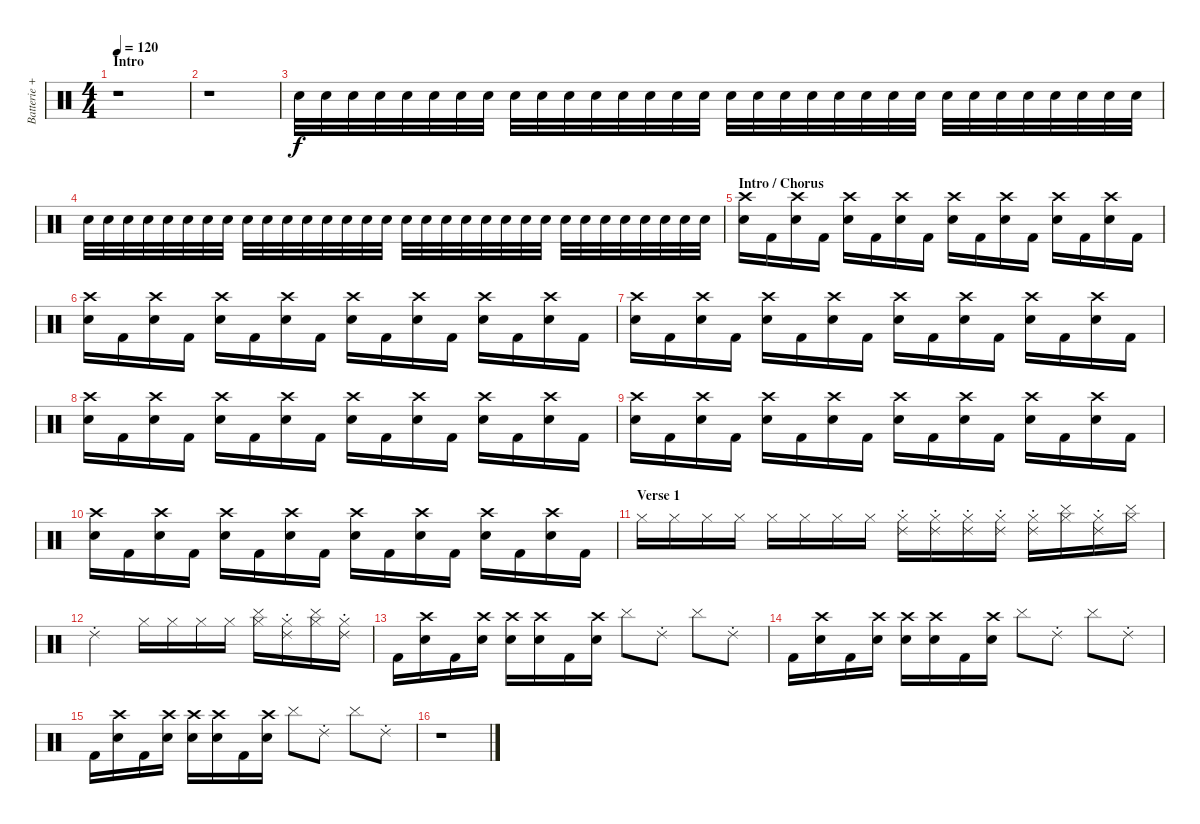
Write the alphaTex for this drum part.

\track ("Batterie + Platines" "Batterie +") {instrument percussion}
\staff {score}
\articulation defaults
\ts (4 4)
\section ("" "Intro")
\tempo 120
\clef neutral
\ks c
r.1{dy f} |
r.1 |
"Snare (hit) 2".32 "Snare (hit) 2".32 "Snare (hit) 2".32 "Snare (hit) 2".32 "Snare (hit) 2".32 "Snare (hit) 2".32 "Snare (hit) 2".32 "Snare (hit) 2".32 "Snare (hit) 2".32 "Snare (hit) 2".32 "Snare (hit) 2".32 "Snare (hit) 2".32 "Snare (hit) 2".32 "Snare (hit) 2".32 "Snare (hit) 2".32 "Snare (hit) 2".32 "Snare (hit) 2".32 "Snare (hit) 2".32 "Snare (hit) 2".32 "Snare (hit) 2".32 "Snare (hit) 2".32 "Snare (hit) 2".32 "Snare (hit) 2".32 "Snare (hit) 2".32 "Snare (hit) 2".32 "Snare (hit) 2".32 "Snare (hit) 2".32 "Snare (hit) 2".32 "Snare (hit) 2".32 "Snare (hit) 2".32 "Snare (hit) 2".32 "Snare (hit) 2".32 |
"Snare (hit) 2".32 "Snare (hit) 2".32 "Snare (hit) 2".32 "Snare (hit) 2".32 "Snare (hit) 2".32 "Snare (hit) 2".32 "Snare (hit) 2".32 "Snare (hit) 2".32 "Snare (hit) 2".32 "Snare (hit) 2".32 "Snare (hit) 2".32 "Snare (hit) 2".32 "Snare (hit) 2".32 "Snare (hit) 2".32 "Snare (hit) 2".32 "Snare (hit) 2".32 "Snare (hit) 2".32 "Snare (hit) 2".32 "Snare (hit) 2".32 "Snare (hit) 2".32 "Snare (hit) 2".32 "Snare (hit) 2".32 "Snare (hit) 2".32 "Snare (hit) 2".32 "Snare (hit) 2".32 "Snare (hit) 2".32 "Snare (hit) 2".32 "Snare (hit) 2".32 "Snare (hit) 2".32 "Snare (hit) 2".32 "Snare (hit) 2".32 "Snare (hit) 2".32 |
\section ("" "Intro / Chorus")
("Crash high (hit)" "Snare (hit) 2").16 "Kick (hit) 2".16 ("Crash high (hit)" "Snare (hit) 2").16 "Kick (hit) 2".16 ("Crash high (hit)" "Snare (hit) 2").16 "Kick (hit) 2".16 ("Crash high (hit)" "Snare (hit) 2").16 "Kick (hit) 2".16 ("Crash high (hit)" "Snare (hit) 2").16 "Kick (hit) 2".16 ("Crash high (hit)" "Snare (hit) 2").16 "Kick (hit) 2".16 ("Crash high (hit)" "Snare (hit) 2").16 "Kick (hit) 2".16 ("Crash high (hit)" "Snare (hit) 2").16 "Kick (hit) 2".16 |
("Crash high (hit)" "Snare (hit) 2").16 "Kick (hit) 2".16 ("Crash high (hit)" "Snare (hit) 2").16 "Kick (hit) 2".16 ("Crash high (hit)" "Snare (hit) 2").16 "Kick (hit) 2".16 ("Crash high (hit)" "Snare (hit) 2").16 "Kick (hit) 2".16 ("Crash high (hit)" "Snare (hit) 2").16 "Kick (hit) 2".16 ("Crash high (hit)" "Snare (hit) 2").16 "Kick (hit) 2".16 ("Crash high (hit)" "Snare (hit) 2").16 "Kick (hit) 2".16 ("Crash high (hit)" "Snare (hit) 2").16 "Kick (hit) 2".16 |
("Crash high (hit)" "Snare (hit) 2").16 "Kick (hit) 2".16 ("Crash high (hit)" "Snare (hit) 2").16 "Kick (hit) 2".16 ("Crash high (hit)" "Snare (hit) 2").16 "Kick (hit) 2".16 ("Crash high (hit)" "Snare (hit) 2").16 "Kick (hit) 2".16 ("Crash high (hit)" "Snare (hit) 2").16 "Kick (hit) 2".16 ("Crash high (hit)" "Snare (hit) 2").16 "Kick (hit) 2".16 ("Crash high (hit)" "Snare (hit) 2").16 "Kick (hit) 2".16 ("Crash high (hit)" "Snare (hit) 2").16 "Kick (hit) 2".16 |
("Crash high (hit)" "Snare (hit) 2").16 "Kick (hit) 2".16 ("Crash high (hit)" "Snare (hit) 2").16 "Kick (hit) 2".16 ("Crash high (hit)" "Snare (hit) 2").16 "Kick (hit) 2".16 ("Crash high (hit)" "Snare (hit) 2").16 "Kick (hit) 2".16 ("Crash high (hit)" "Snare (hit) 2").16 "Kick (hit) 2".16 ("Crash high (hit)" "Snare (hit) 2").16 "Kick (hit) 2".16 ("Crash high (hit)" "Snare (hit) 2").16 "Kick (hit) 2".16 ("Crash high (hit)" "Snare (hit) 2").16 "Kick (hit) 2".16 |
("Crash high (hit)" "Snare (hit) 2").16 "Kick (hit) 2".16 ("Crash high (hit)" "Snare (hit) 2").16 "Kick (hit) 2".16 ("Crash high (hit)" "Snare (hit) 2").16 "Kick (hit) 2".16 ("Crash high (hit)" "Snare (hit) 2").16 "Kick (hit) 2".16 ("Crash high (hit)" "Snare (hit) 2").16 "Kick (hit) 2".16 ("Crash high (hit)" "Snare (hit) 2").16 "Kick (hit) 2".16 ("Crash high (hit)" "Snare (hit) 2").16 "Kick (hit) 2".16 ("Crash high (hit)" "Snare (hit) 2").16 "Kick (hit) 2".16 |
("Crash high (hit)" "Snare (hit) 2").16 "Kick (hit) 2".16 ("Crash high (hit)" "Snare (hit) 2").16 "Kick (hit) 2".16 ("Crash high (hit)" "Snare (hit) 2").16 "Kick (hit) 2".16 ("Crash high (hit)" "Snare (hit) 2").16 "Kick (hit) 2".16 ("Crash high (hit)" "Snare (hit) 2").16 "Kick (hit) 2".16 ("Crash high (hit)" "Snare (hit) 2").16 "Kick (hit) 2".16 ("Crash high (hit)" "Snare (hit) 2").16 "Kick (hit) 2".16 ("Crash high (hit)" "Snare (hit) 2").16 "Kick (hit) 2".16 |
\section ("" "Verse 1")
"Hi-Hat (closed)".16 "Hi-Hat (closed)".16 "Hi-Hat (closed)".16 "Hi-Hat (closed)".16 "Hi-Hat (closed)".16 "Hi-Hat (closed)".16 "Hi-Hat (closed)".16 "Hi-Hat (closed)".16 ("Ride (choke) 2" "Hi-Hat (closed)").16 ("Ride (choke) 2" "Hi-Hat (closed)").16 ("Ride (choke) 2" "Hi-Hat (closed)").16 ("Ride (choke) 2" "Hi-Hat (closed)").16 ("Ride (choke) 2" "Hi-Hat (closed)").16 ("Cymbal (hit)" "Hi-Hat (closed)").16 ("Ride (choke) 2" "Hi-Hat (closed)").16 ("Cymbal (hit)" "Hi-Hat (closed)").16 |
"Ride (choke) 2".2 "Hi-Hat (closed)".16 "Hi-Hat (closed)".16 "Hi-Hat (closed)".16 "Hi-Hat (closed)".16 ("Cymbal (hit)" "Hi-Hat (closed)").16 ("Ride (choke) 2" "Hi-Hat (closed)").16 ("Cymbal (hit)" "Hi-Hat (closed)").16 ("Ride (choke) 2" "Hi-Hat (closed)").16 |
"Kick (hit) 2".16 ("Crash high (hit)" "Snare (hit) 2").16 "Kick (hit) 2".16 ("Crash high (hit)" "Snare (hit) 2").16 ("Crash high (hit)" "Snare (hit) 2").16 ("Crash high (hit)" "Snare (hit) 2").16 "Kick (hit) 2".16 ("Crash high (hit)" "Snare (hit) 2").16 "Cymbal (hit)".8 "Ride (choke) 2".8 "Cymbal (hit)".8 "Ride (choke) 2".8 |
"Kick (hit) 2".16 ("Crash high (hit)" "Snare (hit) 2").16 "Kick (hit) 2".16 ("Crash high (hit)" "Snare (hit) 2").16 ("Crash high (hit)" "Snare (hit) 2").16 ("Crash high (hit)" "Snare (hit) 2").16 "Kick (hit) 2".16 ("Crash high (hit)" "Snare (hit) 2").16 "Cymbal (hit)".8 "Ride (choke) 2".8 "Cymbal (hit)".8 "Ride (choke) 2".8 |
"Kick (hit) 2".16 ("Crash high (hit)" "Snare (hit) 2").16 "Kick (hit) 2".16 ("Crash high (hit)" "Snare (hit) 2").16 ("Crash high (hit)" "Snare (hit) 2").16 ("Crash high (hit)" "Snare (hit) 2").16 "Kick (hit) 2".16 ("Crash high (hit)" "Snare (hit) 2").16 "Cymbal (hit)".8 "Ride (choke) 2".8 "Cymbal (hit)".8 "Ride (choke) 2".8 |
r.1
